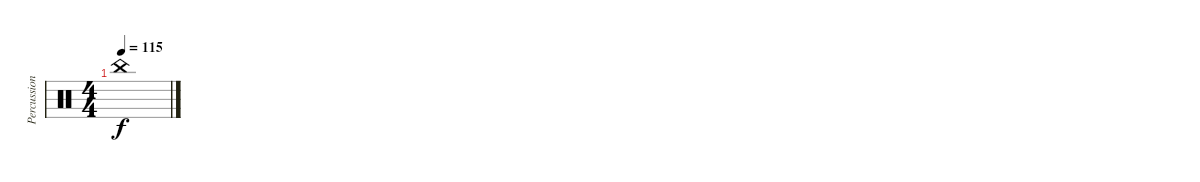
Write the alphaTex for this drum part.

\track ("Percussion" "Percussion") {instrument percussion}
\staff {score}
\articulation defaults
\ts (4 4)
\tempo 115
\clef neutral
\ks c "China (hit)".1{dy f}
